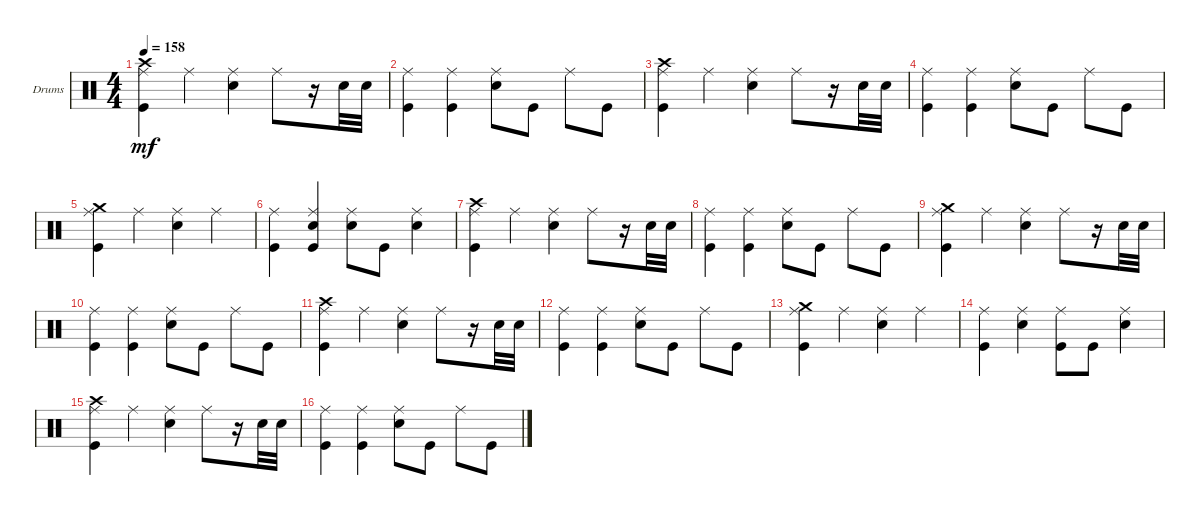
\defaultSystemsLayout 4
\bracketExtendMode groupsimilarinstruments
\firstSystemTrackNameOrientation horizontal
\otherSystemsTrackNameOrientation horizontal
\track ("Drumkit" "Drums") {instrument percussion}
\staff {score}
\articulation defaults
\ts (4 4)
\tempo 158
\clef neutral
\ks c
("Crash high (hit)" "Kick (hit)" "Ride (middle)").4{dy mf} "Ride (middle)".4 ("Ride (middle)" "Snare (hit) 2").4 "Ride (middle)".8 r.16 "Snare (hit) 2".32 "Snare (hit) 2".32 |
("Kick (hit)" "Ride (middle)").4 ("Ride (middle)" "Kick (hit)").4 ("Ride (middle)" "Snare (hit) 2").8 "Kick (hit)".8 "Ride (middle)".8 "Kick (hit)".8 |
("Crash high (hit)" "Kick (hit)" "Ride (middle)").4 "Ride (middle)".4 ("Ride (middle)" "Snare (hit) 2").4 "Ride (middle)".8 r.16 "Snare (hit) 2".32 "Snare (hit) 2".32 |
("Kick (hit)" "Ride (middle)").4 ("Ride (middle)" "Kick (hit)").4 ("Ride (middle)" "Snare (hit) 2").8 "Kick (hit)".8 "Ride (middle)".8 "Kick (hit)".8 |
("Kick (hit)" "Ride (middle)" "Crash medium (hit)").4 "Ride (middle)".4 ("Ride (middle)" "Snare (hit) 2").4 "Ride (middle)".4 |
("Kick (hit)" "Ride (middle)").4 ("Ride (middle)" "Kick (hit)" "Snare (hit) 2").4 ("Ride (middle)" "Snare (hit) 2").8 "Kick (hit)".8 ("Ride (middle)" "Snare (hit) 2").4 |
("Crash high (hit)" "Kick (hit)" "Ride (middle)").4 "Ride (middle)".4 ("Ride (middle)" "Snare (hit) 2").4 "Ride (middle)".8 r.16 "Snare (hit) 2".32 "Snare (hit) 2".32 |
("Kick (hit)" "Ride (middle)").4 ("Ride (middle)" "Kick (hit)").4 ("Ride (middle)" "Snare (hit) 2").8 "Kick (hit)".8 "Ride (middle)".8 "Kick (hit)".8 |
("Kick (hit)" "Ride (middle)" "Crash medium (hit)").4 "Ride (middle)".4 ("Ride (middle)" "Snare (hit) 2").4 "Ride (middle)".8 r.16 "Snare (hit) 2".32 "Snare (hit) 2".32 |
("Kick (hit)" "Ride (middle)").4 ("Ride (middle)" "Kick (hit)").4 ("Ride (middle)" "Snare (hit) 2").8 "Kick (hit)".8 "Ride (middle)".8 "Kick (hit)".8 |
("Crash high (hit)" "Kick (hit)" "Ride (middle)").4 "Ride (middle)".4 ("Ride (middle)" "Snare (hit) 2").4 "Ride (middle)".8 r.16 "Snare (hit) 2".32 "Snare (hit) 2".32 |
("Kick (hit)" "Ride (middle)").4 ("Ride (middle)" "Kick (hit)").4 ("Ride (middle)" "Snare (hit) 2").8 "Kick (hit)".8 "Ride (middle)".8 "Kick (hit)".8 |
("Kick (hit)" "Ride (middle)" "Crash medium (hit)").4 "Ride (middle)".4 ("Ride (middle)" "Snare (hit) 2").4 "Ride (middle)".4 |
("Kick (hit)" "Ride (middle)").4 ("Ride (middle)" "Snare (hit) 2").4 ("Ride (middle)" "Kick (hit)").8 "Kick (hit)".8 ("Ride (middle)" "Snare (hit) 2").4 |
("Crash high (hit)" "Kick (hit)" "Ride (middle)").4 "Ride (middle)".4 ("Ride (middle)" "Snare (hit) 2").4 "Ride (middle)".8 r.16 "Snare (hit) 2".32 "Snare (hit) 2".32 |
("Kick (hit)" "Ride (middle)").4 ("Ride (middle)" "Kick (hit)").4 ("Ride (middle)" "Snare (hit) 2").8 "Kick (hit)".8 "Ride (middle)".8 "Kick (hit)".8
